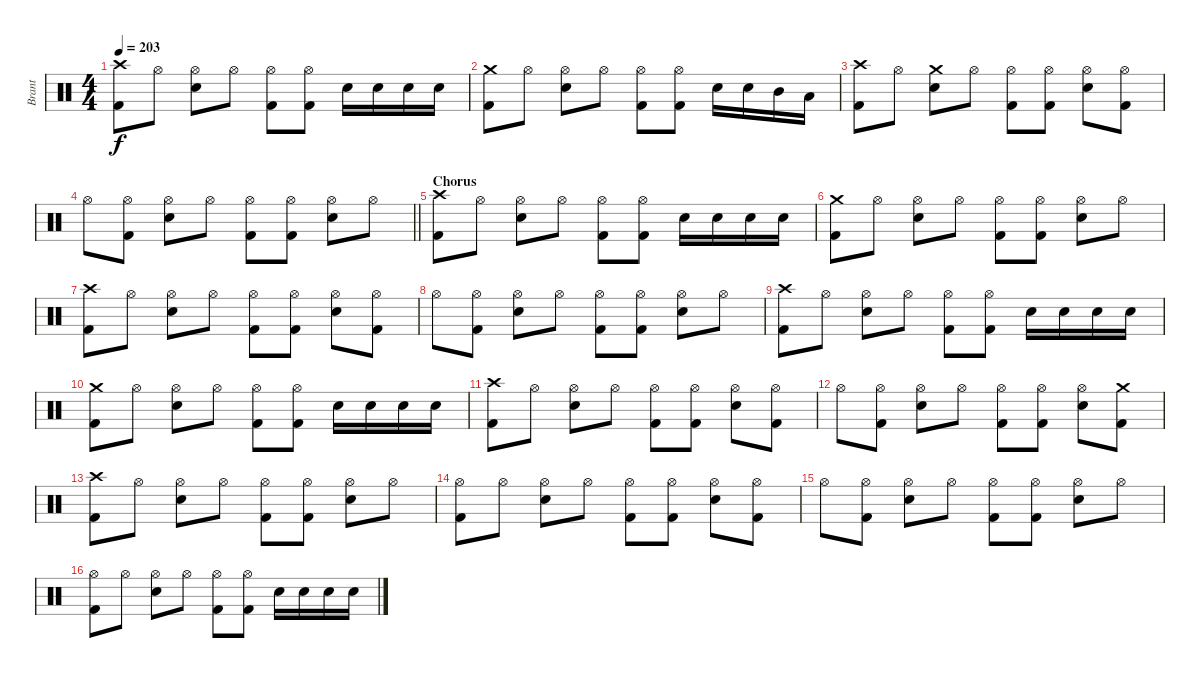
\track ("Brant" "Brant") {instrument percussion}
\staff {score}
\articulation defaults
\ts (4 4)
\section ("" "")
\tempo 203
\clef neutral
\ks c
("Crash high (hit)" "Kick (hit) 2").8{dy f} "Hi-Hat (open)".8 ("Hi-Hat (open)" "Electric Snare (hit)").8 "Hi-Hat (open)".8 ("Hi-Hat (open)" "Kick (hit) 2").8 ("Hi-Hat (open)" "Kick (hit) 2").8 "Electric Snare (hit)".16 "Electric Snare (hit)".16 "Electric Snare (hit)".16 "Electric Snare (hit)".16 |
("Crash medium (hit)" "Kick (hit) 2").8 "Hi-Hat (open)".8 ("Hi-Hat (open)" "Electric Snare (hit)").8 "Hi-Hat (open)".8 ("Hi-Hat (open)" "Kick (hit) 2").8 ("Hi-Hat (open)" "Kick (hit) 2").8 "Electric Snare (hit)".16 "Electric Snare (hit)".16 "Mid Tom (hit)".16 "Low Tom (hit)".16 |
("Crash high (hit)" "Kick (hit) 2").8 "Hi-Hat (open)".8 ("Crash medium (hit)" "Electric Snare (hit)").8 "Hi-Hat (open)".8 ("Hi-Hat (open)" "Kick (hit) 2").8 ("Hi-Hat (open)" "Kick (hit) 2").8 ("Hi-Hat (open)" "Electric Snare (hit)").8 ("Hi-Hat (open)" "Kick (hit) 2").8 |
\barLineRight lightlight "Hi-Hat (open)".8
("Hi-Hat (open)" "Kick (hit) 2").8 ("Hi-Hat (open)" "Electric Snare (hit)").8 "Hi-Hat (open)".8 ("Hi-Hat (open)" "Kick (hit) 2").8 ("Hi-Hat (open)" "Kick (hit) 2").8 ("Hi-Hat (open)" "Electric Snare (hit)").8 "Hi-Hat (open)".8 |
\section ("" "Chorus")
("Crash high (hit)" "Kick (hit) 2").8 "Hi-Hat (open)".8 ("Hi-Hat (open)" "Electric Snare (hit)").8 "Hi-Hat (open)".8 ("Hi-Hat (open)" "Kick (hit) 2").8 ("Hi-Hat (open)" "Kick (hit) 2").8 "Electric Snare (hit)".16 "Electric Snare (hit)".16 "Electric Snare (hit)".16 "Electric Snare (hit)".16 |
("Crash medium (hit)" "Kick (hit) 2").8 "Hi-Hat (open)".8 ("Hi-Hat (open)" "Electric Snare (hit)").8 "Hi-Hat (open)".8 ("Hi-Hat (open)" "Kick (hit) 2").8 ("Hi-Hat (open)" "Kick (hit) 2").8 ("Hi-Hat (open)" "Electric Snare (hit)").8 "Hi-Hat (open)".8 |
("Crash high (hit)" "Kick (hit) 2").8 "Hi-Hat (open)".8 ("Hi-Hat (open)" "Electric Snare (hit)").8 "Hi-Hat (open)".8 ("Hi-Hat (open)" "Kick (hit) 2").8 ("Hi-Hat (open)" "Kick (hit) 2").8 ("Hi-Hat (open)" "Electric Snare (hit)").8 ("Hi-Hat (open)" "Kick (hit) 2").8 |
"Hi-Hat (open)".8 ("Hi-Hat (open)" "Kick (hit) 2").8 ("Hi-Hat (open)" "Electric Snare (hit)").8 "Hi-Hat (open)".8 ("Hi-Hat (open)" "Kick (hit) 2").8 ("Hi-Hat (open)" "Kick (hit) 2").8 ("Hi-Hat (open)" "Electric Snare (hit)").8 "Hi-Hat (open)".8 |
("Crash high (hit)" "Kick (hit) 2").8 "Hi-Hat (open)".8 ("Hi-Hat (open)" "Electric Snare (hit)").8 "Hi-Hat (open)".8 ("Hi-Hat (open)" "Kick (hit) 2").8 ("Hi-Hat (open)" "Kick (hit) 2").8 "Electric Snare (hit)".16 "Electric Snare (hit)".16 "Electric Snare (hit)".16 "Electric Snare (hit)".16 |
("Crash medium (hit)" "Kick (hit) 2").8 "Hi-Hat (open)".8 ("Hi-Hat (open)" "Electric Snare (hit)").8 "Hi-Hat (open)".8 ("Hi-Hat (open)" "Kick (hit) 2").8 ("Hi-Hat (open)" "Kick (hit) 2").8 "Electric Snare (hit)".16 "Electric Snare (hit)".16 "Electric Snare (hit)".16 "Electric Snare (hit)".16 |
("Crash high (hit)" "Kick (hit) 2").8 "Hi-Hat (open)".8 ("Hi-Hat (open)" "Electric Snare (hit)").8 "Hi-Hat (open)".8 ("Hi-Hat (open)" "Kick (hit) 2").8 ("Hi-Hat (open)" "Kick (hit) 2").8 ("Hi-Hat (open)" "Electric Snare (hit)").8 ("Hi-Hat (open)" "Kick (hit) 2").8 |
"Hi-Hat (open)".8 ("Hi-Hat (open)" "Kick (hit) 2").8 ("Hi-Hat (open)" "Electric Snare (hit)").8 "Hi-Hat (open)".8 ("Hi-Hat (open)" "Kick (hit) 2").8 ("Hi-Hat (open)" "Kick (hit) 2").8 ("Hi-Hat (open)" "Electric Snare (hit)").8 ("Crash medium (hit)" "Kick (hit) 2").8 |
("Crash high (hit)" "Kick (hit) 2").8 "Hi-Hat (open)".8 ("Hi-Hat (open)" "Electric Snare (hit)").8 "Hi-Hat (open)".8 ("Hi-Hat (open)" "Kick (hit) 2").8 ("Hi-Hat (open)" "Kick (hit) 2").8 ("Hi-Hat (open)" "Electric Snare (hit)").8 "Hi-Hat (open)".8 |
("Hi-Hat (open)" "Kick (hit) 2").8 "Hi-Hat (open)".8 ("Hi-Hat (open)" "Electric Snare (hit)").8 "Hi-Hat (open)".8 ("Hi-Hat (open)" "Kick (hit) 2").8 ("Hi-Hat (open)" "Kick (hit) 2").8 ("Hi-Hat (open)" "Electric Snare (hit)").8 ("Hi-Hat (open)" "Kick (hit) 2").8 |
"Hi-Hat (open)".8 ("Hi-Hat (open)" "Kick (hit) 2").8 ("Hi-Hat (open)" "Electric Snare (hit)").8 "Hi-Hat (open)".8 ("Hi-Hat (open)" "Kick (hit) 2").8 ("Hi-Hat (open)" "Kick (hit) 2").8 ("Hi-Hat (open)" "Electric Snare (hit)").8 "Hi-Hat (open)".8 |
("Hi-Hat (open)" "Kick (hit) 2").8 "Hi-Hat (open)".8 ("Hi-Hat (open)" "Electric Snare (hit)").8 "Hi-Hat (open)".8 ("Hi-Hat (open)" "Kick (hit) 2").8 ("Hi-Hat (open)" "Kick (hit) 2").8 "Electric Snare (hit)".16 "Electric Snare (hit)".16 "Electric Snare (hit)".16 "Electric Snare (hit)".16
